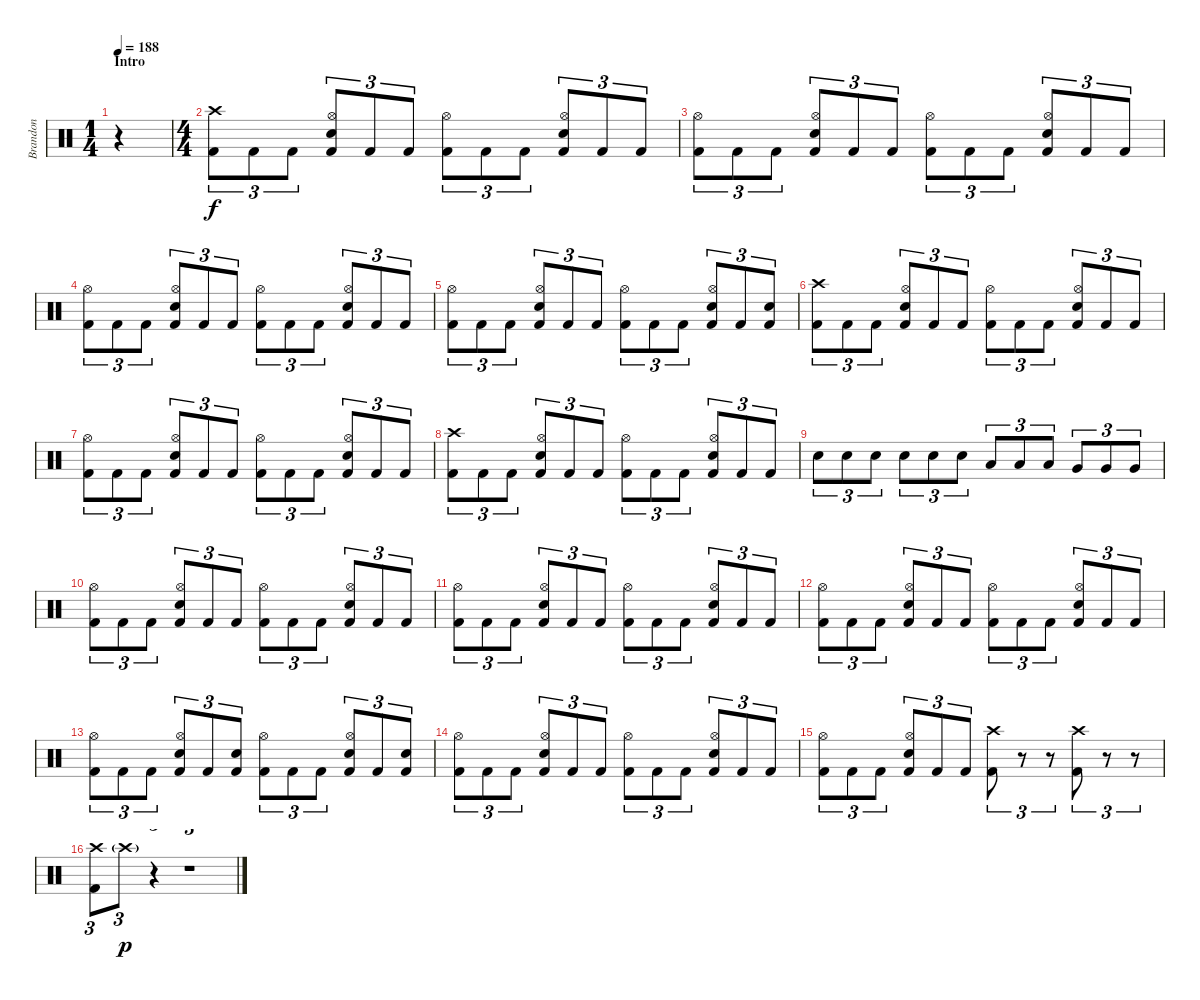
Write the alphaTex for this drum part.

\track ("Brandon" "Brandon") {instrument percussion}
\staff {score}
\articulation defaults
\ts (1 4)
\section ("" "Intro")
\tempo 188
\clef neutral
\ks c
r.4{dy f} |
\ts (4 4)
("Crash high (hit)" "Kick (hit) 2").8{tu (3 2)} "Kick (hit) 2".8{tu (3 2)} "Kick (hit) 2".8{tu (3 2)} ("Hi-Hat (open)" "Snare (hit) 2" "Kick (hit) 2").8{tu (3 2)} "Kick (hit) 2".8{tu (3 2)} "Kick (hit) 2".8{tu (3 2)} ("Hi-Hat (open)" "Kick (hit) 2").8{tu (3 2)} "Kick (hit) 2".8{tu (3 2)} "Kick (hit) 2".8{tu (3 2)} ("Hi-Hat (open)" "Snare (hit) 2" "Kick (hit) 2").8{tu (3 2)} "Kick (hit) 2".8{tu (3 2)} "Kick (hit) 2".8{tu (3 2)} |
("Hi-Hat (open)" "Kick (hit) 2").8{tu (3 2)} "Kick (hit) 2".8{tu (3 2)} "Kick (hit) 2".8{tu (3 2)} ("Hi-Hat (open)" "Snare (hit) 2" "Kick (hit) 2").8{tu (3 2)} "Kick (hit) 2".8{tu (3 2)} "Kick (hit) 2".8{tu (3 2)} ("Hi-Hat (open)" "Kick (hit) 2").8{tu (3 2)} "Kick (hit) 2".8{tu (3 2)} "Kick (hit) 2".8{tu (3 2)} ("Hi-Hat (open)" "Snare (hit) 2" "Kick (hit) 2").8{tu (3 2)} "Kick (hit) 2".8{tu (3 2)} "Kick (hit) 2".8{tu (3 2)} |
("Hi-Hat (open)" "Kick (hit) 2").8{tu (3 2)} "Kick (hit) 2".8{tu (3 2)} "Kick (hit) 2".8{tu (3 2)} ("Hi-Hat (open)" "Snare (hit) 2" "Kick (hit) 2").8{tu (3 2)} "Kick (hit) 2".8{tu (3 2)} "Kick (hit) 2".8{tu (3 2)} ("Hi-Hat (open)" "Kick (hit) 2").8{tu (3 2)} "Kick (hit) 2".8{tu (3 2)} "Kick (hit) 2".8{tu (3 2)} ("Hi-Hat (open)" "Snare (hit) 2" "Kick (hit) 2").8{tu (3 2)} "Kick (hit) 2".8{tu (3 2)} "Kick (hit) 2".8{tu (3 2)} |
("Hi-Hat (open)" "Kick (hit) 2").8{tu (3 2)} "Kick (hit) 2".8{tu (3 2)} "Kick (hit) 2".8{tu (3 2)} ("Hi-Hat (open)" "Snare (hit) 2" "Kick (hit) 2").8{tu (3 2)} "Kick (hit) 2".8{tu (3 2)} "Kick (hit) 2".8{tu (3 2)} ("Hi-Hat (open)" "Kick (hit) 2").8{tu (3 2)} "Kick (hit) 2".8{tu (3 2)} "Kick (hit) 2".8{tu (3 2)} ("Hi-Hat (open)" "Snare (hit) 2" "Kick (hit) 2").8{tu (3 2)} "Kick (hit) 2".8{tu (3 2)} ("Snare (hit) 2" "Kick (hit) 2").8{tu (3 2)} |
("Crash high (hit)" "Kick (hit) 2").8{tu (3 2)} "Kick (hit) 2".8{tu (3 2)} "Kick (hit) 2".8{tu (3 2)} ("Hi-Hat (open)" "Snare (hit) 2" "Kick (hit) 2").8{tu (3 2)} "Kick (hit) 2".8{tu (3 2)} "Kick (hit) 2".8{tu (3 2)} ("Hi-Hat (open)" "Kick (hit) 2").8{tu (3 2)} "Kick (hit) 2".8{tu (3 2)} "Kick (hit) 2".8{tu (3 2)} ("Hi-Hat (open)" "Snare (hit) 2" "Kick (hit) 2").8{tu (3 2)} "Kick (hit) 2".8{tu (3 2)} "Kick (hit) 2".8{tu (3 2)} |
("Hi-Hat (open)" "Kick (hit) 2").8{tu (3 2)} "Kick (hit) 2".8{tu (3 2)} "Kick (hit) 2".8{tu (3 2)} ("Hi-Hat (open)" "Snare (hit) 2" "Kick (hit) 2").8{tu (3 2)} "Kick (hit) 2".8{tu (3 2)} "Kick (hit) 2".8{tu (3 2)} ("Hi-Hat (open)" "Kick (hit) 2").8{tu (3 2)} "Kick (hit) 2".8{tu (3 2)} "Kick (hit) 2".8{tu (3 2)} ("Hi-Hat (open)" "Snare (hit) 2" "Kick (hit) 2").8{tu (3 2)} "Kick (hit) 2".8{tu (3 2)} "Kick (hit) 2".8{tu (3 2)} |
("Crash high (hit)" "Kick (hit) 2").8{tu (3 2)} "Kick (hit) 2".8{tu (3 2)} "Kick (hit) 2".8{tu (3 2)} ("Hi-Hat (open)" "Snare (hit) 2" "Kick (hit) 2").8{tu (3 2)} "Kick (hit) 2".8{tu (3 2)} "Kick (hit) 2".8{tu (3 2)} ("Hi-Hat (open)" "Kick (hit) 2").8{tu (3 2)} "Kick (hit) 2".8{tu (3 2)} "Kick (hit) 2".8{tu (3 2)} ("Hi-Hat (open)" "Snare (hit) 2" "Kick (hit) 2").8{tu (3 2)} "Kick (hit) 2".8{tu (3 2)} "Kick (hit) 2".8{tu (3 2)} |
"Snare (hit) 2".8{tu (3 2)} "Snare (hit) 2".8{tu (3 2)} "Snare (hit) 2".8{tu (3 2)} "Snare (hit) 2".8{tu (3 2)} "Snare (hit) 2".8{tu (3 2)} "Snare (hit) 2".8{tu (3 2)} "Low Tom (hit)".8{tu (3 2)} "Low Tom (hit)".8{tu (3 2)} "Low Tom (hit)".8{tu (3 2)} "Very Low Tom (hit)".8{tu (3 2)} "Very Low Tom (hit)".8{tu (3 2)} "Very Low Tom (hit)".8{tu (3 2)} |
("Hi-Hat (open)" "Kick (hit) 2").8{tu (3 2)} "Kick (hit) 2".8{tu (3 2)} "Kick (hit) 2".8{tu (3 2)} ("Hi-Hat (open)" "Snare (hit) 2" "Kick (hit) 2").8{tu (3 2)} "Kick (hit) 2".8{tu (3 2)} "Kick (hit) 2".8{tu (3 2)} ("Hi-Hat (open)" "Kick (hit) 2").8{tu (3 2)} "Kick (hit) 2".8{tu (3 2)} "Kick (hit) 2".8{tu (3 2)} ("Hi-Hat (open)" "Snare (hit) 2" "Kick (hit) 2").8{tu (3 2)} "Kick (hit) 2".8{tu (3 2)} "Kick (hit) 2".8{tu (3 2)} |
("Hi-Hat (open)" "Kick (hit) 2").8{tu (3 2)} "Kick (hit) 2".8{tu (3 2)} "Kick (hit) 2".8{tu (3 2)} ("Hi-Hat (open)" "Snare (hit) 2" "Kick (hit) 2").8{tu (3 2)} "Kick (hit) 2".8{tu (3 2)} "Kick (hit) 2".8{tu (3 2)} ("Hi-Hat (open)" "Kick (hit) 2").8{tu (3 2)} "Kick (hit) 2".8{tu (3 2)} "Kick (hit) 2".8{tu (3 2)} ("Hi-Hat (open)" "Snare (hit) 2" "Kick (hit) 2").8{tu (3 2)} "Kick (hit) 2".8{tu (3 2)} "Kick (hit) 2".8{tu (3 2)} |
("Hi-Hat (open)" "Kick (hit) 2").8{tu (3 2)} "Kick (hit) 2".8{tu (3 2)} "Kick (hit) 2".8{tu (3 2)} ("Hi-Hat (open)" "Snare (hit) 2" "Kick (hit) 2").8{tu (3 2)} "Kick (hit) 2".8{tu (3 2)} "Kick (hit) 2".8{tu (3 2)} ("Hi-Hat (open)" "Kick (hit) 2").8{tu (3 2)} "Kick (hit) 2".8{tu (3 2)} "Kick (hit) 2".8{tu (3 2)} ("Hi-Hat (open)" "Snare (hit) 2" "Kick (hit) 2").8{tu (3 2)} "Kick (hit) 2".8{tu (3 2)} "Kick (hit) 2".8{tu (3 2)} |
("Hi-Hat (open)" "Kick (hit) 2").8{tu (3 2)} "Kick (hit) 2".8{tu (3 2)} "Kick (hit) 2".8{tu (3 2)} ("Hi-Hat (open)" "Snare (hit) 2" "Kick (hit) 2").8{tu (3 2)} "Kick (hit) 2".8{tu (3 2)} ("Snare (hit) 2" "Kick (hit) 2").8{tu (3 2)} ("Hi-Hat (open)" "Kick (hit) 2").8{tu (3 2)} "Kick (hit) 2".8{tu (3 2)} "Kick (hit) 2".8{tu (3 2)} ("Hi-Hat (open)" "Snare (hit) 2" "Kick (hit) 2").8{tu (3 2)} "Kick (hit) 2".8{tu (3 2)} ("Snare (hit) 2" "Kick (hit) 2").8{tu (3 2)} |
("Hi-Hat (open)" "Kick (hit) 2").8{tu (3 2)} "Kick (hit) 2".8{tu (3 2)} "Kick (hit) 2".8{tu (3 2)} ("Hi-Hat (open)" "Snare (hit) 2" "Kick (hit) 2").8{tu (3 2)} "Kick (hit) 2".8{tu (3 2)} "Kick (hit) 2".8{tu (3 2)} ("Hi-Hat (open)" "Kick (hit) 2").8{tu (3 2)} "Kick (hit) 2".8{tu (3 2)} "Kick (hit) 2".8{tu (3 2)} ("Hi-Hat (open)" "Snare (hit) 2" "Kick (hit) 2").8{tu (3 2)} "Kick (hit) 2".8{tu (3 2)} "Kick (hit) 2".8{tu (3 2)} |
("Hi-Hat (open)" "Kick (hit) 2").8{tu (3 2)} "Kick (hit) 2".8{tu (3 2)} "Kick (hit) 2".8{tu (3 2)} ("Hi-Hat (open)" "Snare (hit) 2" "Kick (hit) 2").8{tu (3 2)} "Kick (hit) 2".8{tu (3 2)} "Kick (hit) 2".8{tu (3 2)} ("Crash high (hit)" "Kick (hit) 2").8{tu (3 2)} r.8{tu (3 2)} r.8{tu (3 2)} ("Crash high (hit)" "Kick (hit) 2").8{tu (3 2)} r.8{tu (3 2)} r.8{tu (3 2)} |
("Crash high (hit)" "Kick (hit) 2").8{tu (3 2)} "Crash high (hit)"{g}.8{tu (3 2) dy p} r.4{tu (3 2)} r.1{tu (3 2)}
